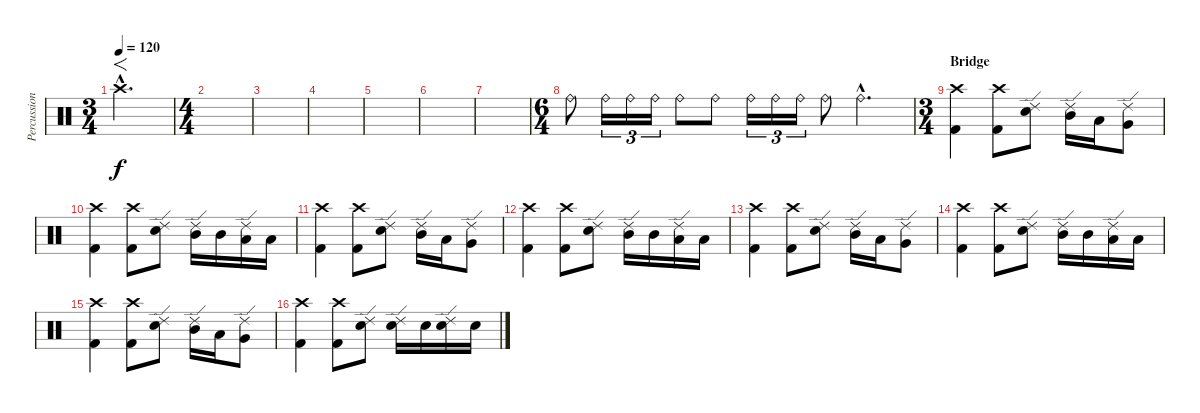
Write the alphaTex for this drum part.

\track ("Percussion" "Percussion") {instrument percussion}
\staff {score}
\articulation defaults
\ts (3 4)
\tempo 120
\clef neutral
\ks c "Crash high (hit)"{hac}.2{f d dy f}
|
\ts (4 4)
|
|
|
|
|
|
\ts (6 4)
"Ride (bell)".8 "Ride (bell)".16{tu (3 2)} "Ride (bell)".16{tu (3 2)} "Ride (bell)".16{tu (3 2)} "Ride (bell)".8 "Ride (bell)".8 "Ride (bell)".16{tu (3 2)} "Ride (bell)".16{tu (3 2)} "Ride (bell)".16{tu (3 2)} "Ride (bell)".8 "Ride (bell)"{hac}.2{d} |
\ts (3 4)
\section ("" "Bridge")
("Crash high (hit)" "Kick (hit) 2").4 ("Crash high (hit)" "Kick (hit) 2").8 ("Ride (edge) 2" "Snare (hit) 2").8 ("Ride (edge) 2" "Mid Tom (hit)").16 "Low Tom (hit)".16 ("Ride (edge) 2" "Very Low Tom (hit)").8 |
("Crash high (hit)" "Kick (hit) 2").4 ("Crash high (hit)" "Kick (hit) 2").8 ("Ride (edge) 2" "Snare (hit) 2").8 ("Ride (edge) 2" "Mid Tom (hit)").16 "Mid Tom (hit)".16 ("Ride (edge) 2" "Low Tom (hit)").16 "Low Tom (hit)".16 |
("Crash high (hit)" "Kick (hit) 2").4 ("Crash high (hit)" "Kick (hit) 2").8 ("Ride (edge) 2" "Snare (hit) 2").8 ("Ride (edge) 2" "Mid Tom (hit)").16 "Low Tom (hit)".16 ("Ride (edge) 2" "Very Low Tom (hit)").8 |
("Crash high (hit)" "Kick (hit) 2").4 ("Crash high (hit)" "Kick (hit) 2").8 ("Ride (edge) 2" "Snare (hit) 2").8 ("Ride (edge) 2" "Mid Tom (hit)").16 "Mid Tom (hit)".16 ("Ride (edge) 2" "Low Tom (hit)").16 "Low Tom (hit)".16 |
("Crash high (hit)" "Kick (hit) 2").4 ("Crash high (hit)" "Kick (hit) 2").8 ("Ride (edge) 2" "Snare (hit) 2").8 ("Ride (edge) 2" "Mid Tom (hit)").16 "Low Tom (hit)".16 ("Ride (edge) 2" "Very Low Tom (hit)").8 |
("Crash high (hit)" "Kick (hit) 2").4 ("Crash high (hit)" "Kick (hit) 2").8 ("Ride (edge) 2" "Snare (hit) 2").8 ("Ride (edge) 2" "Mid Tom (hit)").16 "Mid Tom (hit)".16 ("Ride (edge) 2" "Low Tom (hit)").16 "Low Tom (hit)".16 |
("Crash high (hit)" "Kick (hit) 2").4 ("Crash high (hit)" "Kick (hit) 2").8 ("Ride (edge) 2" "Snare (hit) 2").8 ("Ride (edge) 2" "Mid Tom (hit)").16 "Low Tom (hit)".16 ("Ride (edge) 2" "Very Low Tom (hit)").8 |
("Crash high (hit)" "Kick (hit) 2").4 ("Crash high (hit)" "Kick (hit) 2").8 ("Ride (edge) 2" "Snare (hit) 2").8 ("Ride (edge) 2" "Snare (hit) 2").16 "Snare (hit) 2".16 ("Ride (edge) 2" "Snare (hit) 2").16 "Snare (hit) 2".16
